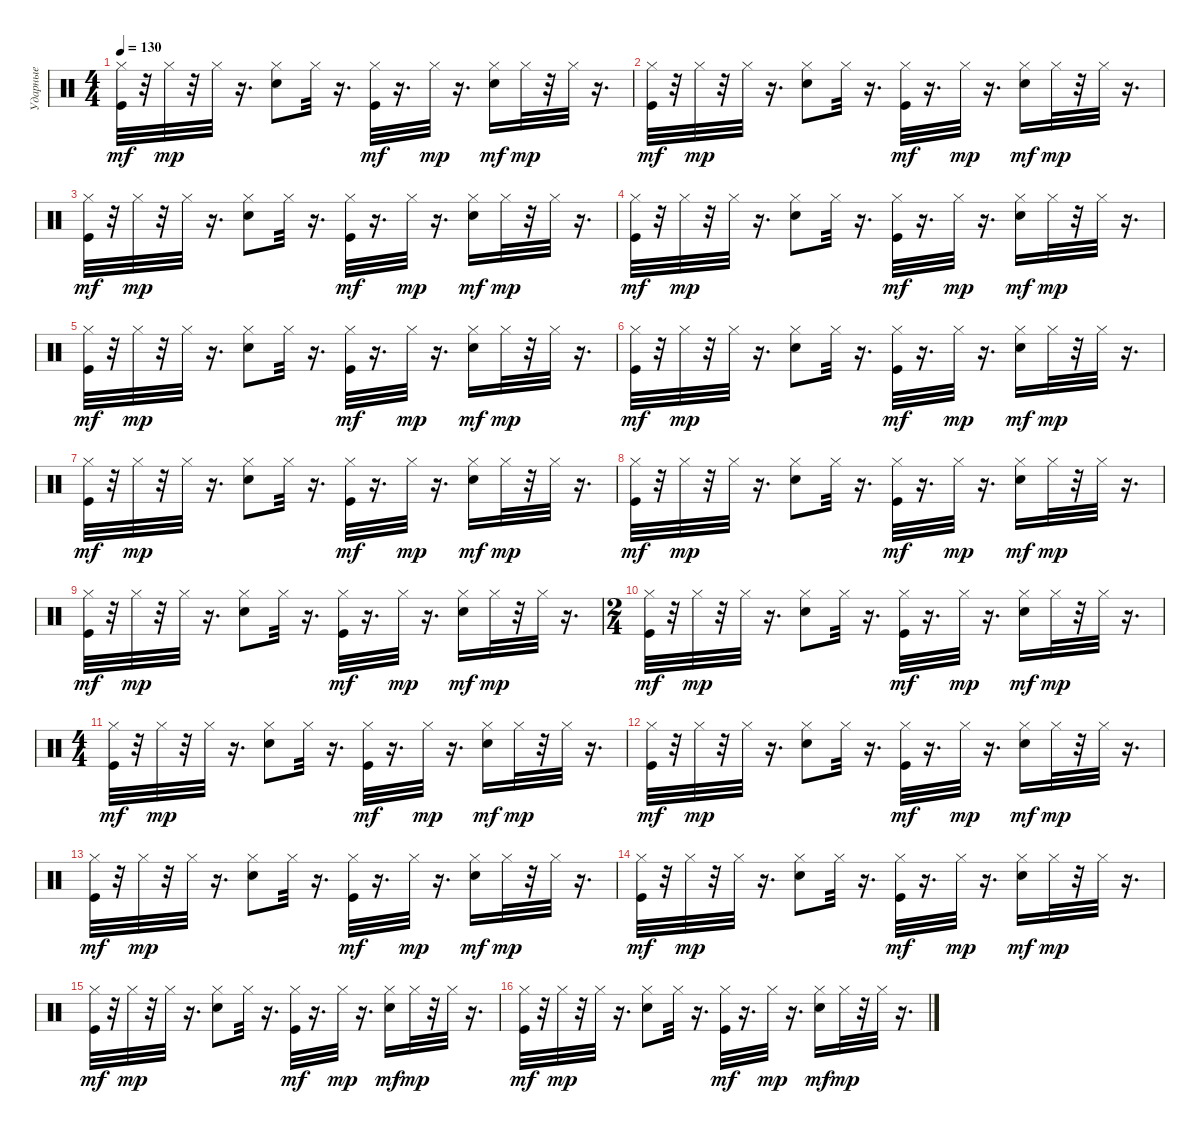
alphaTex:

\track ("Ударные" "Ударные") {instrument percussion}
\staff {score}
\articulation defaults
\ts (4 4)
\tempo 130
\clef neutral
\ks c
("Kick (hit)" "Hi-Hat (closed)").32{dy mf} r.32 "Hi-Hat (closed)".32{dy mp} r.32 "Hi-Hat (closed)".32 r.16{d} ("Snare (hit) 2" "Hi-Hat (closed)").8 "Hi-Hat (closed)".32 r.16{d} ("Kick (hit)" "Hi-Hat (closed)").32{dy mf} r.16{d} "Hi-Hat (closed)".32{dy mp} r.16{d} ("Snare (hit) 2" "Hi-Hat (closed)").16{dy mf} "Hi-Hat (closed)".32{dy mp} r.32 "Hi-Hat (closed)".32 r.16{d} |
("Kick (hit)" "Hi-Hat (closed)").32{dy mf} r.32 "Hi-Hat (closed)".32{dy mp} r.32 "Hi-Hat (closed)".32 r.16{d} ("Snare (hit) 2" "Hi-Hat (closed)").8 "Hi-Hat (closed)".32 r.16{d} ("Kick (hit)" "Hi-Hat (closed)").32{dy mf} r.16{d} "Hi-Hat (closed)".32{dy mp} r.16{d} ("Snare (hit) 2" "Hi-Hat (closed)").16{dy mf} "Hi-Hat (closed)".32{dy mp} r.32 "Hi-Hat (closed)".32 r.16{d} |
("Kick (hit)" "Hi-Hat (closed)").32{dy mf} r.32 "Hi-Hat (closed)".32{dy mp} r.32 "Hi-Hat (closed)".32 r.16{d} ("Snare (hit) 2" "Hi-Hat (closed)").8 "Hi-Hat (closed)".32 r.16{d} ("Kick (hit)" "Hi-Hat (closed)").32{dy mf} r.16{d} "Hi-Hat (closed)".32{dy mp} r.16{d} ("Snare (hit) 2" "Hi-Hat (closed)").16{dy mf} "Hi-Hat (closed)".32{dy mp} r.32 "Hi-Hat (closed)".32 r.16{d} |
("Kick (hit)" "Hi-Hat (closed)").32{dy mf} r.32 "Hi-Hat (closed)".32{dy mp} r.32 "Hi-Hat (closed)".32 r.16{d} ("Snare (hit) 2" "Hi-Hat (closed)").8 "Hi-Hat (closed)".32 r.16{d} ("Kick (hit)" "Hi-Hat (closed)").32{dy mf} r.16{d} "Hi-Hat (closed)".32{dy mp} r.16{d} ("Snare (hit) 2" "Hi-Hat (closed)").16{dy mf} "Hi-Hat (closed)".32{dy mp} r.32 "Hi-Hat (closed)".32 r.16{d} |
("Kick (hit)" "Hi-Hat (closed)").32{dy mf} r.32 "Hi-Hat (closed)".32{dy mp} r.32 "Hi-Hat (closed)".32 r.16{d} ("Snare (hit) 2" "Hi-Hat (closed)").8 "Hi-Hat (closed)".32 r.16{d} ("Kick (hit)" "Hi-Hat (closed)").32{dy mf} r.16{d} "Hi-Hat (closed)".32{dy mp} r.16{d} ("Snare (hit) 2" "Hi-Hat (closed)").16{dy mf} "Hi-Hat (closed)".32{dy mp} r.32 "Hi-Hat (closed)".32 r.16{d} |
("Kick (hit)" "Hi-Hat (closed)").32{dy mf} r.32 "Hi-Hat (closed)".32{dy mp} r.32 "Hi-Hat (closed)".32 r.16{d} ("Snare (hit) 2" "Hi-Hat (closed)").8 "Hi-Hat (closed)".32 r.16{d} ("Kick (hit)" "Hi-Hat (closed)").32{dy mf} r.16{d} "Hi-Hat (closed)".32{dy mp} r.16{d} ("Snare (hit) 2" "Hi-Hat (closed)").16{dy mf} "Hi-Hat (closed)".32{dy mp} r.32 "Hi-Hat (closed)".32 r.16{d} |
("Kick (hit)" "Hi-Hat (closed)").32{dy mf} r.32 "Hi-Hat (closed)".32{dy mp} r.32 "Hi-Hat (closed)".32 r.16{d} ("Snare (hit) 2" "Hi-Hat (closed)").8 "Hi-Hat (closed)".32 r.16{d} ("Kick (hit)" "Hi-Hat (closed)").32{dy mf} r.16{d} "Hi-Hat (closed)".32{dy mp} r.16{d} ("Snare (hit) 2" "Hi-Hat (closed)").16{dy mf} "Hi-Hat (closed)".32{dy mp} r.32 "Hi-Hat (closed)".32 r.16{d} |
("Kick (hit)" "Hi-Hat (closed)").32{dy mf} r.32 "Hi-Hat (closed)".32{dy mp} r.32 "Hi-Hat (closed)".32 r.16{d} ("Snare (hit) 2" "Hi-Hat (closed)").8 "Hi-Hat (closed)".32 r.16{d} ("Kick (hit)" "Hi-Hat (closed)").32{dy mf} r.16{d} "Hi-Hat (closed)".32{dy mp} r.16{d} ("Snare (hit) 2" "Hi-Hat (closed)").16{dy mf} "Hi-Hat (closed)".32{dy mp} r.32 "Hi-Hat (closed)".32 r.16{d} |
("Kick (hit)" "Hi-Hat (closed)").32{dy mf} r.32 "Hi-Hat (closed)".32{dy mp} r.32 "Hi-Hat (closed)".32 r.16{d} ("Snare (hit) 2" "Hi-Hat (closed)").8 "Hi-Hat (closed)".32 r.16{d} ("Kick (hit)" "Hi-Hat (closed)").32{dy mf} r.16{d} "Hi-Hat (closed)".32{dy mp} r.16{d} ("Snare (hit) 2" "Hi-Hat (closed)").16{dy mf} "Hi-Hat (closed)".32{dy mp} r.32 "Hi-Hat (closed)".32 r.16{d} |
\ts (2 4)
("Kick (hit)" "Hi-Hat (closed)").32{dy mf} r.32 "Hi-Hat (closed)".32{dy mp} r.32 "Hi-Hat (closed)".32 r.16{d} ("Snare (hit) 2" "Hi-Hat (closed)").8 "Hi-Hat (closed)".32 r.16{d} ("Kick (hit)" "Hi-Hat (closed)").32{dy mf} r.16{d} "Hi-Hat (closed)".32{dy mp} r.16{d} ("Snare (hit) 2" "Hi-Hat (closed)").16{dy mf} "Hi-Hat (closed)".32{dy mp} r.32 "Hi-Hat (closed)".32 r.16{d} |
\ts (4 4)
("Kick (hit)" "Hi-Hat (closed)").32{dy mf} r.32 "Hi-Hat (closed)".32{dy mp} r.32 "Hi-Hat (closed)".32 r.16{d} ("Snare (hit) 2" "Hi-Hat (closed)").8 "Hi-Hat (closed)".32 r.16{d} ("Kick (hit)" "Hi-Hat (closed)").32{dy mf} r.16{d} "Hi-Hat (closed)".32{dy mp} r.16{d} ("Snare (hit) 2" "Hi-Hat (closed)").16{dy mf} "Hi-Hat (closed)".32{dy mp} r.32 "Hi-Hat (closed)".32 r.16{d} |
("Kick (hit)" "Hi-Hat (closed)").32{dy mf} r.32 "Hi-Hat (closed)".32{dy mp} r.32 "Hi-Hat (closed)".32 r.16{d} ("Snare (hit) 2" "Hi-Hat (closed)").8 "Hi-Hat (closed)".32 r.16{d} ("Kick (hit)" "Hi-Hat (closed)").32{dy mf} r.16{d} "Hi-Hat (closed)".32{dy mp} r.16{d} ("Snare (hit) 2" "Hi-Hat (closed)").16{dy mf} "Hi-Hat (closed)".32{dy mp} r.32 "Hi-Hat (closed)".32 r.16{d} |
("Kick (hit)" "Hi-Hat (closed)").32{dy mf} r.32 "Hi-Hat (closed)".32{dy mp} r.32 "Hi-Hat (closed)".32 r.16{d} ("Snare (hit) 2" "Hi-Hat (closed)").8 "Hi-Hat (closed)".32 r.16{d} ("Kick (hit)" "Hi-Hat (closed)").32{dy mf} r.16{d} "Hi-Hat (closed)".32{dy mp} r.16{d} ("Snare (hit) 2" "Hi-Hat (closed)").16{dy mf} "Hi-Hat (closed)".32{dy mp} r.32 "Hi-Hat (closed)".32 r.16{d} |
("Kick (hit)" "Hi-Hat (closed)").32{dy mf} r.32 "Hi-Hat (closed)".32{dy mp} r.32 "Hi-Hat (closed)".32 r.16{d} ("Snare (hit) 2" "Hi-Hat (closed)").8 "Hi-Hat (closed)".32 r.16{d} ("Kick (hit)" "Hi-Hat (closed)").32{dy mf} r.16{d} "Hi-Hat (closed)".32{dy mp} r.16{d} ("Snare (hit) 2" "Hi-Hat (closed)").16{dy mf} "Hi-Hat (closed)".32{dy mp} r.32 "Hi-Hat (closed)".32 r.16{d} |
("Kick (hit)" "Hi-Hat (closed)").32{dy mf} r.32 "Hi-Hat (closed)".32{dy mp} r.32 "Hi-Hat (closed)".32 r.16{d} ("Snare (hit) 2" "Hi-Hat (closed)").8 "Hi-Hat (closed)".32 r.16{d} ("Kick (hit)" "Hi-Hat (closed)").32{dy mf} r.16{d} "Hi-Hat (closed)".32{dy mp} r.16{d} ("Snare (hit) 2" "Hi-Hat (closed)").16{dy mf} "Hi-Hat (closed)".32{dy mp} r.32 "Hi-Hat (closed)".32 r.16{d} |
("Kick (hit)" "Hi-Hat (closed)").32{dy mf} r.32 "Hi-Hat (closed)".32{dy mp} r.32 "Hi-Hat (closed)".32 r.16{d} ("Snare (hit) 2" "Hi-Hat (closed)").8 "Hi-Hat (closed)".32 r.16{d} ("Kick (hit)" "Hi-Hat (closed)").32{dy mf} r.16{d} "Hi-Hat (closed)".32{dy mp} r.16{d} ("Snare (hit) 2" "Hi-Hat (closed)").16{dy mf} "Hi-Hat (closed)".32{dy mp} r.32 "Hi-Hat (closed)".32 r.16{d}
